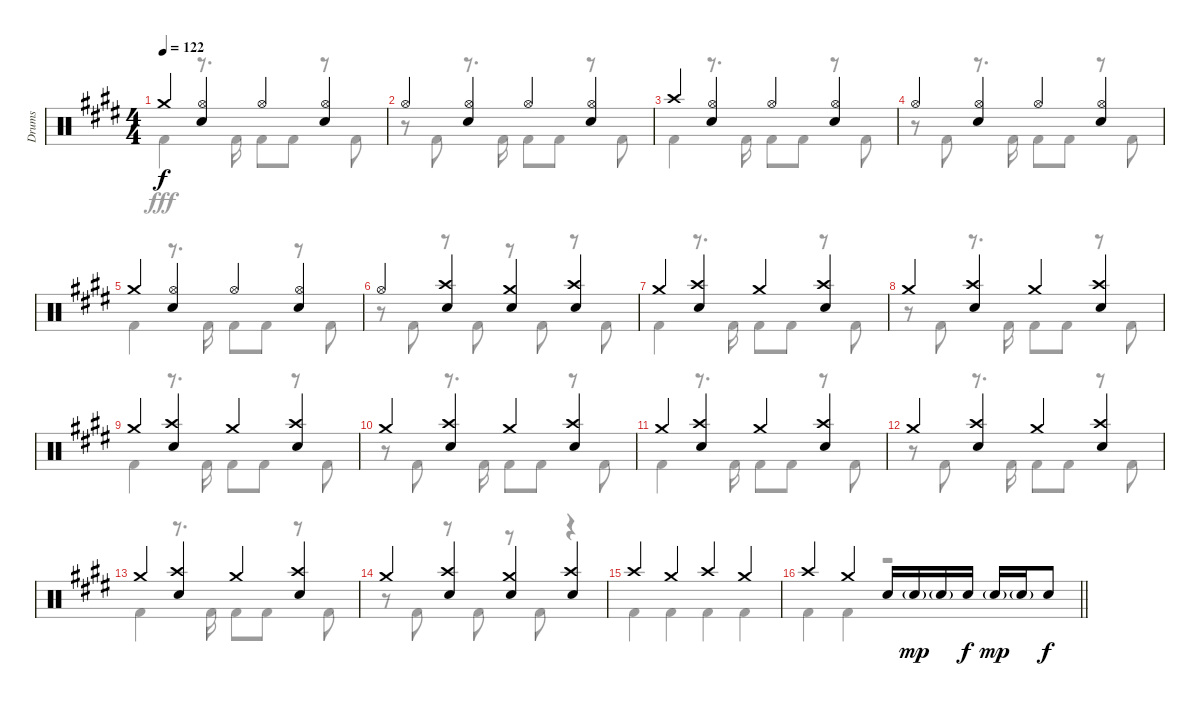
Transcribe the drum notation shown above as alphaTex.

\track ("Drums" "Drums") {instrument percussion}
\staff {score}
\articulation defaults
\voice
\ts (4 4)
\tempo 122
\clef neutral
\ks e "Crash medium (hit)".4{dy f}
("Hi-Hat (open)" "Snare (hit) 2").4 "Hi-Hat (open)".4 ("Hi-Hat (open)" "Snare (hit) 2").4 |
"Hi-Hat (open)".4 ("Hi-Hat (open)" "Snare (hit) 2").4 "Hi-Hat (open)".4 ("Hi-Hat (open)" "Snare (hit) 2").4 |
"Crash high (hit)".4 ("Hi-Hat (open)" "Snare (hit) 2").4 "Hi-Hat (open)".4 ("Hi-Hat (open)" "Snare (hit) 2").4 |
"Hi-Hat (open)".4 ("Hi-Hat (open)" "Snare (hit) 2").4 "Hi-Hat (open)".4 ("Hi-Hat (open)" "Snare (hit) 2").4 |
"Crash medium (hit)".4 ("Hi-Hat (open)" "Snare (hit) 2").4 "Hi-Hat (open)".4 ("Hi-Hat (open)" "Snare (hit) 2").4 |
"Hi-Hat (open)".4 ("Crash high (hit)" "Snare (hit) 2").4 ("Crash medium (hit)" "Snare (hit) 2").4 ("Crash high (hit)" "Snare (hit) 2").4 |
"Crash medium (hit)".4 ("Crash high (hit)" "Snare (hit) 2").4 "Crash medium (hit)".4 ("Crash high (hit)" "Snare (hit) 2").4 |
"Crash medium (hit)".4 ("Crash high (hit)" "Snare (hit) 2").4 "Crash medium (hit)".4 ("Crash high (hit)" "Snare (hit) 2").4 |
"Crash medium (hit)".4 ("Crash high (hit)" "Snare (hit) 2").4 "Crash medium (hit)".4 ("Crash high (hit)" "Snare (hit) 2").4 |
"Crash medium (hit)".4 ("Crash high (hit)" "Snare (hit) 2").4 "Crash medium (hit)".4 ("Crash high (hit)" "Snare (hit) 2").4 |
"Crash medium (hit)".4 ("Crash high (hit)" "Snare (hit) 2").4 "Crash medium (hit)".4 ("Crash high (hit)" "Snare (hit) 2").4 |
"Crash medium (hit)".4 ("Crash high (hit)" "Snare (hit) 2").4 "Crash medium (hit)".4 ("Crash high (hit)" "Snare (hit) 2").4 |
"Crash medium (hit)".4 ("Crash high (hit)" "Snare (hit) 2").4 "Crash medium (hit)".4 ("Crash high (hit)" "Snare (hit) 2").4 |
"Crash medium (hit)".4 ("Crash high (hit)" "Snare (hit) 2").4 ("Crash medium (hit)" "Snare (hit) 2").4 ("Crash high (hit)" "Snare (hit) 2").4 |
"Crash high (hit)".4 "Crash medium (hit)".4 "Crash high (hit)".4 "Crash medium (hit)".4 |
\barLineRight lightlight "Crash high (hit)".4 "Crash medium (hit)".4 "Snare (hit) 2".16 "Snare (hit) 2"{g}.16{dy mp} "Snare (hit) 2"{g}.16 "Snare (hit) 2".16{dy f} "Snare (hit) 2"{g}.16{dy mp} "Snare (hit) 2"{g}.16 "Snare (hit) 2".8{dy f}
\voice
\clef neutral
\ottava regular
\simile none
\ks e "Kick (hit) 2".4{dy fff}
r.8{d} "Kick (hit) 2".16 "Kick (hit) 2".8 "Kick (hit) 2".8 r.8 "Kick (hit) 2".8 |
r.8 "Kick (hit) 2".8 r.8{d} "Kick (hit) 2".16 "Kick (hit) 2".8 "Kick (hit) 2".8 r.8 "Kick (hit) 2".8 |
"Kick (hit) 2".4 r.8{d} "Kick (hit) 2".16 "Kick (hit) 2".8 "Kick (hit) 2".8 r.8 "Kick (hit) 2".8 |
r.8 "Kick (hit) 2".8 r.8{d} "Kick (hit) 2".16 "Kick (hit) 2".8 "Kick (hit) 2".8 r.8 "Kick (hit) 2".8 |
"Kick (hit) 2".4 r.8{d} "Kick (hit) 2".16 "Kick (hit) 2".8 "Kick (hit) 2".8 r.8 "Kick (hit) 2".8 |
r.8 "Kick (hit) 2".8 r.8 "Kick (hit) 2".8 r.8 "Kick (hit) 2".8 r.8 "Kick (hit) 2".8 |
"Kick (hit) 2".4 r.8{d} "Kick (hit) 2".16 "Kick (hit) 2".8 "Kick (hit) 2".8 r.8 "Kick (hit) 2".8 |
r.8 "Kick (hit) 2".8 r.8{d} "Kick (hit) 2".16 "Kick (hit) 2".8 "Kick (hit) 2".8 r.8 "Kick (hit) 2".8 |
"Kick (hit) 2".4 r.8{d} "Kick (hit) 2".16 "Kick (hit) 2".8 "Kick (hit) 2".8 r.8 "Kick (hit) 2".8 |
r.8 "Kick (hit) 2".8 r.8{d} "Kick (hit) 2".16 "Kick (hit) 2".8 "Kick (hit) 2".8 r.8 "Kick (hit) 2".8 |
"Kick (hit) 2".4 r.8{d} "Kick (hit) 2".16 "Kick (hit) 2".8 "Kick (hit) 2".8 r.8 "Kick (hit) 2".8 |
r.8 "Kick (hit) 2".8 r.8{d} "Kick (hit) 2".16 "Kick (hit) 2".8 "Kick (hit) 2".8 r.8 "Kick (hit) 2".8 |
"Kick (hit) 2".4 r.8{d} "Kick (hit) 2".16 "Kick (hit) 2".8 "Kick (hit) 2".8 r.8 "Kick (hit) 2".8 |
r.8 "Kick (hit) 2".8 r.8 "Kick (hit) 2".8 r.8 "Kick (hit) 2".8 r.4 |
"Kick (hit) 2".4 "Kick (hit) 2".4 "Kick (hit) 2".4 "Kick (hit) 2".4 |
\barLineRight lightlight "Kick (hit) 2".4 "Kick (hit) 2".4
r.2
